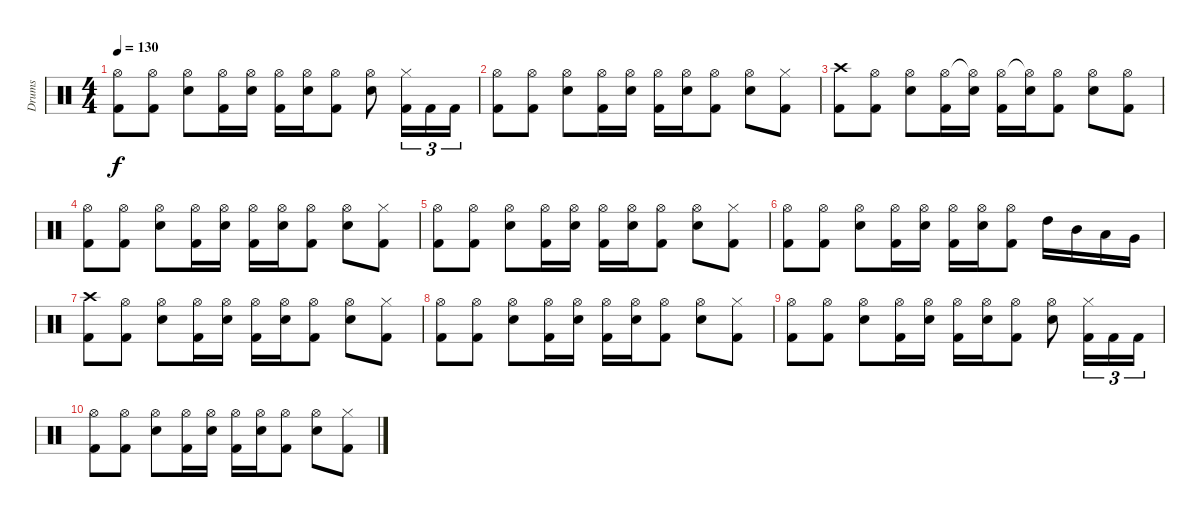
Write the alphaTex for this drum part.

\track ("Drums" "Drums") {instrument percussion}
\staff {score}
\articulation defaults
\ts (4 4)
\tempo 130
\clef neutral
\ks c
("Hi-Hat (open)" "Kick (hit) 2").8{dy f} ("Hi-Hat (open)" "Kick (hit) 2").8 ("Hi-Hat (open)" "Electric Snare (hit)").8 ("Hi-Hat (open)" "Kick (hit) 2").16 ("Hi-Hat (open)" "Electric Snare (hit)").16 ("Hi-Hat (open)" "Kick (hit) 2").16 ("Hi-Hat (open)" "Electric Snare (hit)").16 ("Hi-Hat (open)" "Kick (hit) 2").8 ("Hi-Hat (open)" "Electric Snare (hit)").8 ("Hi-Hat (closed)" "Kick (hit) 2").16{tu (3 2)} "Kick (hit) 2".16{tu (3 2)} "Kick (hit) 2".16{tu (3 2)} |
("Hi-Hat (open)" "Kick (hit) 2").8 ("Hi-Hat (open)" "Kick (hit) 2").8 ("Hi-Hat (open)" "Electric Snare (hit)").8 ("Hi-Hat (open)" "Kick (hit) 2").16 ("Hi-Hat (open)" "Electric Snare (hit)").16 ("Hi-Hat (open)" "Kick (hit) 2").16 ("Hi-Hat (open)" "Electric Snare (hit)").16 ("Hi-Hat (open)" "Kick (hit) 2").8 ("Hi-Hat (open)" "Electric Snare (hit)").8 ("Hi-Hat (closed)" "Kick (hit) 2").8 |
("Crash high (hit)" "Kick (hit) 2").8 ("Hi-Hat (open)" "Kick (hit) 2").8 ("Hi-Hat (open)" "Electric Snare (hit)").8 ("Hi-Hat (open)" "Kick (hit) 2").16 ("Hi-Hat (open)"{t} "Electric Snare (hit)").16 ("Hi-Hat (open)" "Kick (hit) 2").16 ("Hi-Hat (open)"{t} "Electric Snare (hit)").16 ("Hi-Hat (open)" "Kick (hit) 2").8 ("Hi-Hat (open)" "Electric Snare (hit)").8 ("Hi-Hat (open)" "Kick (hit) 2").8 |
("Hi-Hat (open)" "Kick (hit) 2").8 ("Hi-Hat (open)" "Kick (hit) 2").8 ("Hi-Hat (open)" "Electric Snare (hit)").8 ("Hi-Hat (open)" "Kick (hit) 2").16 ("Hi-Hat (open)" "Electric Snare (hit)").16 ("Hi-Hat (open)" "Kick (hit) 2").16 ("Hi-Hat (open)" "Electric Snare (hit)").16 ("Hi-Hat (open)" "Kick (hit) 2").8 ("Hi-Hat (open)" "Electric Snare (hit)").8 ("Hi-Hat (closed)" "Kick (hit) 2").8 |
("Hi-Hat (open)" "Kick (hit) 2").8 ("Hi-Hat (open)" "Kick (hit) 2").8 ("Hi-Hat (open)" "Electric Snare (hit)").8 ("Hi-Hat (open)" "Kick (hit) 2").16 ("Hi-Hat (open)" "Electric Snare (hit)").16 ("Hi-Hat (open)" "Kick (hit) 2").16 ("Hi-Hat (open)" "Electric Snare (hit)").16 ("Hi-Hat (open)" "Kick (hit) 2").8 ("Hi-Hat (open)" "Electric Snare (hit)").8 ("Hi-Hat (closed)" "Kick (hit) 2").8 |
("Hi-Hat (open)" "Kick (hit) 2").8 ("Hi-Hat (open)" "Kick (hit) 2").8 ("Hi-Hat (open)" "Electric Snare (hit)").8 ("Hi-Hat (open)" "Kick (hit) 2").16 ("Hi-Hat (open)" "Electric Snare (hit)").16 ("Hi-Hat (open)" "Kick (hit) 2").16 ("Hi-Hat (open)" "Electric Snare (hit)").16 ("Hi-Hat (open)" "Kick (hit) 2").8 "High Tom (hit)".16 "Mid Tom (hit)".16 "Low Tom (hit)".16 "Very Low Tom (hit)".16 |
("Crash high (hit)" "Kick (hit) 2").8 ("Hi-Hat (open)" "Kick (hit) 2").8 ("Hi-Hat (open)" "Electric Snare (hit)").8 ("Hi-Hat (open)" "Kick (hit) 2").16 ("Hi-Hat (open)" "Electric Snare (hit)").16 ("Hi-Hat (open)" "Kick (hit) 2").16 ("Hi-Hat (open)" "Electric Snare (hit)").16 ("Hi-Hat (open)" "Kick (hit) 2").8 ("Hi-Hat (open)" "Electric Snare (hit)").8 ("Hi-Hat (closed)" "Kick (hit) 2").8 |
("Hi-Hat (open)" "Kick (hit) 2").8 ("Hi-Hat (open)" "Kick (hit) 2").8 ("Hi-Hat (open)" "Electric Snare (hit)").8 ("Hi-Hat (open)" "Kick (hit) 2").16 ("Hi-Hat (open)" "Electric Snare (hit)").16 ("Hi-Hat (open)" "Kick (hit) 2").16 ("Hi-Hat (open)" "Electric Snare (hit)").16 ("Hi-Hat (open)" "Kick (hit) 2").8 ("Hi-Hat (open)" "Electric Snare (hit)").8 ("Hi-Hat (closed)" "Kick (hit) 2").8 |
("Hi-Hat (open)" "Kick (hit) 2").8 ("Hi-Hat (open)" "Kick (hit) 2").8 ("Hi-Hat (open)" "Electric Snare (hit)").8 ("Hi-Hat (open)" "Kick (hit) 2").16 ("Hi-Hat (open)" "Electric Snare (hit)").16 ("Hi-Hat (open)" "Kick (hit) 2").16 ("Hi-Hat (open)" "Electric Snare (hit)").16 ("Hi-Hat (open)" "Kick (hit) 2").8 ("Hi-Hat (open)" "Electric Snare (hit)").8 ("Hi-Hat (closed)" "Kick (hit) 2").16{tu (3 2)} "Kick (hit) 2".16{tu (3 2)} "Kick (hit) 2".16{tu (3 2)} |
("Hi-Hat (open)" "Kick (hit) 2").8 ("Hi-Hat (open)" "Kick (hit) 2").8 ("Hi-Hat (open)" "Electric Snare (hit)").8 ("Hi-Hat (open)" "Kick (hit) 2").16 ("Hi-Hat (open)" "Electric Snare (hit)").16 ("Hi-Hat (open)" "Kick (hit) 2").16 ("Hi-Hat (open)" "Electric Snare (hit)").16 ("Hi-Hat (open)" "Kick (hit) 2").8 ("Hi-Hat (open)" "Electric Snare (hit)").8 ("Hi-Hat (closed)" "Kick (hit) 2").8
